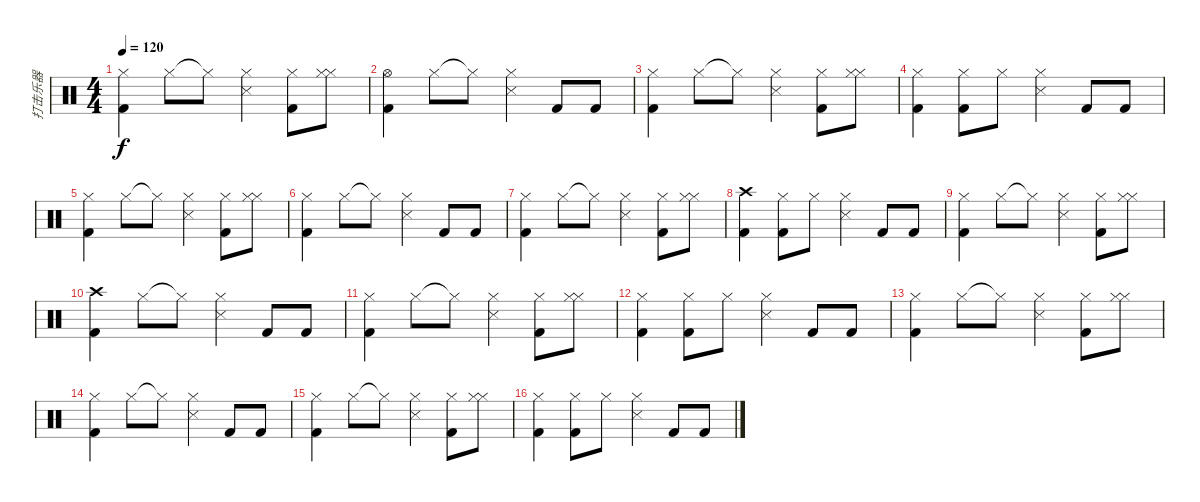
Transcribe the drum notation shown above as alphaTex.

\track ("打击乐器" "打击乐器") {instrument percussion}
\staff {score}
\articulation defaults
\ts (4 4)
\tempo 120
\clef neutral
\ks c
("Hi-Hat (closed)" "Kick (hit) 2").4{dy f} "Hi-Hat (closed)".8 "Hi-Hat (closed)"{t}.8 ("Snare (side stick) 3" "Hi-Hat (closed)").4 ("Hi-Hat (closed)" "Kick (hit) 2").8 ("Hi-Hat (closed)" "Hi-Hat (closed)").8 |
("Hi-Hat (open)" "Kick (hit) 2").4 "Hi-Hat (closed)".8 "Hi-Hat (closed)"{t}.8 ("Snare (side stick) 3" "Hi-Hat (closed)").4 "Kick (hit) 2".8 "Kick (hit) 2".8 |
("Hi-Hat (closed)" "Kick (hit) 2").4 "Hi-Hat (closed)".8 "Hi-Hat (closed)"{t}.8 ("Snare (side stick) 3" "Hi-Hat (closed)").4 ("Hi-Hat (closed)" "Kick (hit) 2").8 ("Hi-Hat (closed)" "Hi-Hat (closed)").8 |
("Kick (hit) 2" "Hi-Hat (closed)").4 ("Kick (hit) 2" "Hi-Hat (closed)").8 "Hi-Hat (closed)".8 ("Snare (side stick) 3" "Hi-Hat (closed)").4 "Kick (hit) 2".8 "Kick (hit) 2".8 |
("Hi-Hat (closed)" "Kick (hit) 2").4 "Hi-Hat (closed)".8 "Hi-Hat (closed)"{t}.8 ("Snare (side stick) 3" "Hi-Hat (closed)").4 ("Hi-Hat (closed)" "Kick (hit) 2").8 ("Hi-Hat (closed)" "Hi-Hat (closed)").8 |
("Hi-Hat (closed)" "Kick (hit) 2").4 "Hi-Hat (closed)".8 "Hi-Hat (closed)"{t}.8 ("Snare (side stick) 3" "Hi-Hat (closed)").4 "Kick (hit) 2".8 "Kick (hit) 2".8 |
("Hi-Hat (closed)" "Kick (hit) 2").4 "Hi-Hat (closed)".8 "Hi-Hat (closed)"{t}.8 ("Snare (side stick) 3" "Hi-Hat (closed)").4 ("Hi-Hat (closed)" "Kick (hit) 2").8 ("Hi-Hat (closed)" "Hi-Hat (closed)").8 |
("Crash high (hit)" "Kick (hit) 2").4 ("Kick (hit) 2" "Hi-Hat (closed)").8 "Hi-Hat (closed)".8 ("Snare (side stick) 3" "Hi-Hat (closed)").4 "Kick (hit) 2".8 "Kick (hit) 2".8 |
("Hi-Hat (closed)" "Kick (hit) 2").4 "Hi-Hat (closed)".8 "Hi-Hat (closed)"{t}.8 ("Snare (side stick) 3" "Hi-Hat (closed)").4 ("Hi-Hat (closed)" "Kick (hit) 2").8 ("Hi-Hat (closed)" "Hi-Hat (closed)").8 |
("Crash high (hit)" "Kick (hit) 2").4 "Hi-Hat (closed)".8 "Hi-Hat (closed)"{t}.8 ("Snare (side stick) 3" "Hi-Hat (closed)").4 "Kick (hit) 2".8 "Kick (hit) 2".8 |
("Hi-Hat (closed)" "Kick (hit) 2").4 "Hi-Hat (closed)".8 "Hi-Hat (closed)"{t}.8 ("Snare (side stick) 3" "Hi-Hat (closed)").4 ("Hi-Hat (closed)" "Kick (hit) 2").8 ("Hi-Hat (closed)" "Hi-Hat (closed)").8 |
("Kick (hit) 2" "Hi-Hat (closed)").4 ("Kick (hit) 2" "Hi-Hat (closed)").8 "Hi-Hat (closed)".8 ("Snare (side stick) 3" "Hi-Hat (closed)").4 "Kick (hit) 2".8 "Kick (hit) 2".8 |
("Hi-Hat (closed)" "Kick (hit) 2").4 "Hi-Hat (closed)".8 "Hi-Hat (closed)"{t}.8 ("Snare (side stick) 3" "Hi-Hat (closed)").4 ("Hi-Hat (closed)" "Kick (hit) 2").8 ("Hi-Hat (closed)" "Hi-Hat (closed)").8 |
("Hi-Hat (closed)" "Kick (hit) 2").4 "Hi-Hat (closed)".8 "Hi-Hat (closed)"{t}.8 ("Snare (side stick) 3" "Hi-Hat (closed)").4 "Kick (hit) 2".8 "Kick (hit) 2".8 |
("Hi-Hat (closed)" "Kick (hit) 2").4 "Hi-Hat (closed)".8 "Hi-Hat (closed)"{t}.8 ("Snare (side stick) 3" "Hi-Hat (closed)").4 ("Hi-Hat (closed)" "Kick (hit) 2").8 ("Hi-Hat (closed)" "Hi-Hat (closed)").8 |
("Kick (hit) 2" "Hi-Hat (closed)").4 ("Kick (hit) 2" "Hi-Hat (closed)").8 "Hi-Hat (closed)".8 ("Snare (side stick) 3" "Hi-Hat (closed)").4 "Kick (hit) 2".8 "Kick (hit) 2".8
